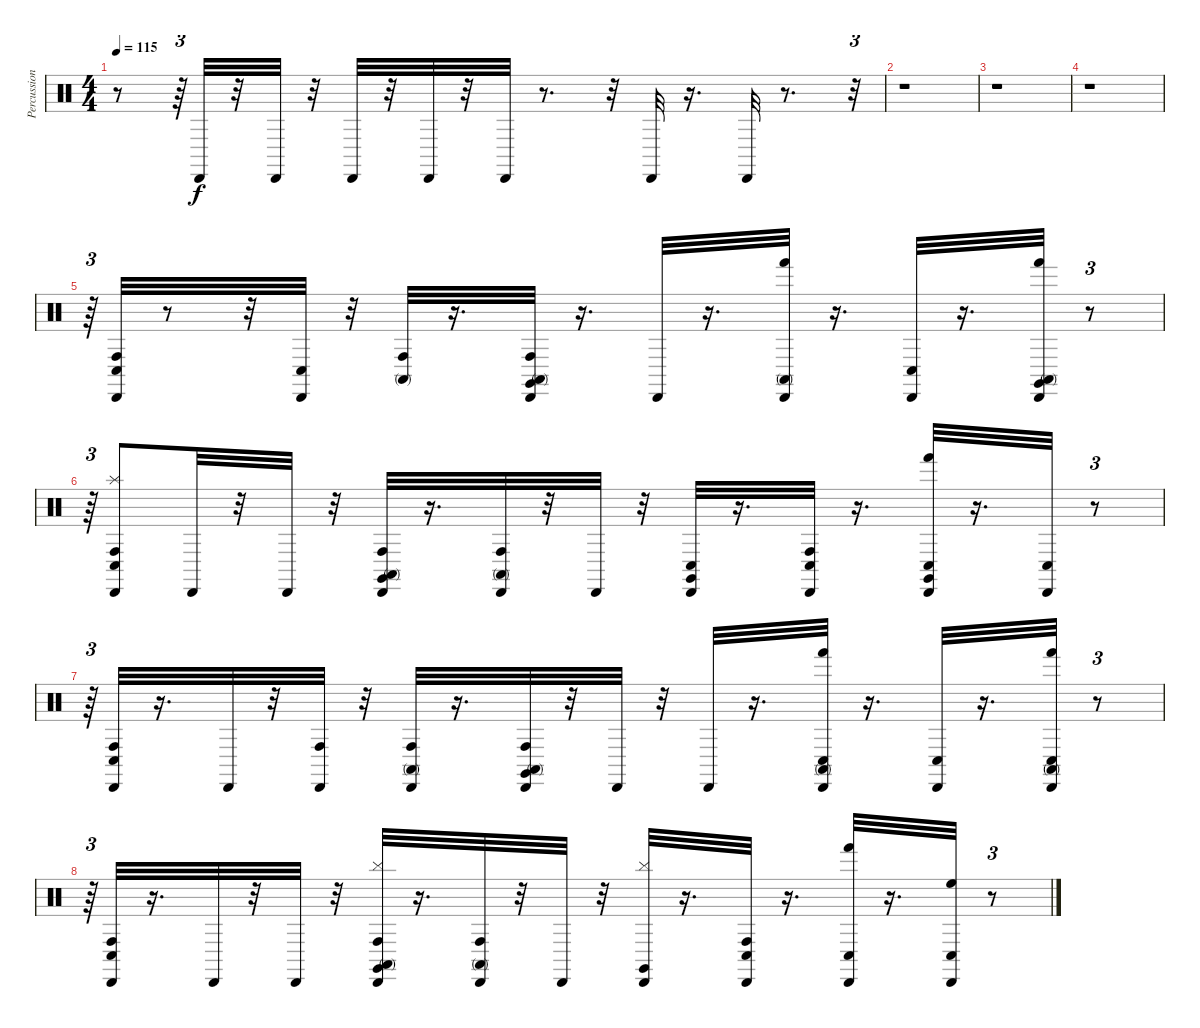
\track ("Percussion" "Percussion") {instrument percussion}
\staff {score}
\articulation defaults
\ts (4 4)
\tempo 115
\clef neutral
\ks c
r.8{dy f} r.64{tu (3 2)} "Cabasa (hit)".32 r.32 "Cabasa (hit)".32 r.32 "Cabasa (hit)".32 r.32 "Cabasa (hit)".32 r.32 "Cabasa (hit)".32 r.8{d} r.32 "Cabasa (hit)".32 r.16{d} "Cabasa (hit)".32 r.8{d} r.32{tu (3 2)} |
r.1 |
r.1 |
r.1 |
r.64{tu (3 2)} ("Conga low (hit)" "Conga high (hit)" "Cabasa (hit)").32 r.8 r.32 ("Cabasa (hit)" "Conga low (hit)").32 r.32 ("Conga high (hit)" "Conga high (mute)").32 r.16{d} ("Conga high (hit)" "Conga high (mute)" "Cabasa (hit)" "Claves (hit)").32 r.16{d} "Cabasa (hit)".32 r.16{d} ("Conga high (mute)" "Cabasa (hit)" "Hand (hit)").32 r.16{d} ("Cabasa (hit)" "Conga low (hit)").32 r.16{d} ("Cabasa (hit)" "Claves (hit)" "Hand (hit)" "Conga high (mute)").32 r.8{tu (3 2)} |
r.64{tu (3 2)} ("Splash (hit)" "Conga low (hit)" "Cabasa (hit)" "Conga high (hit)").8 "Cabasa (hit)".32 r.32 "Cabasa (hit)".32 r.32 ("Conga high (mute)" "Conga high (hit)" "Claves (hit)" "Cabasa (hit)").32 r.16{d} ("Cabasa (hit)" "Conga high (hit)" "Conga high (mute)").32 r.32 "Cabasa (hit)".32 r.32 ("Cabasa (hit)" "Conga low (hit)" "Claves (hit)").32 r.16{d} ("Conga high (hit)" "Conga low (hit)" "Cabasa (hit)").32 r.16{d} ("Claves (hit)" "Conga low (hit)" "Cabasa (hit)" "Hand (hit)").32 r.16{d} ("Conga low (hit)" "Cabasa (hit)").32 r.8{tu (3 2)} |
r.64{tu (3 2)} ("Conga low (hit)" "Conga high (hit)" "Cabasa (hit)").32 r.16{d} "Cabasa (hit)".32 r.32 ("Conga high (hit)" "Cabasa (hit)").32 r.32 ("Conga high (hit)" "Conga high (mute)" "Cabasa (hit)").32 r.16{d} ("Claves (hit)" "Conga high (mute)" "Cabasa (hit)" "Conga high (hit)").32 r.32 "Cabasa (hit)".32 r.32 "Cabasa (hit)".32 r.16{d} ("Hand (hit)" "Conga high (mute)" "Cabasa (hit)" "Conga low (hit)").32 r.16{d} ("Cabasa (hit)" "Conga low (hit)").32 r.16{d} ("Conga high (mute)" "Conga low (hit)" "Cabasa (hit)" "Hand (hit)").32 r.8{tu (3 2)} |
r.64{tu (3 2)} ("Conga high (hit)" "Cabasa (hit)" "Conga low (hit)").32 r.16{d} "Cabasa (hit)".32 r.32 "Cabasa (hit)".32 r.32 ("Conga high (hit)" "Conga high (mute)" "Cabasa (hit)" "Claves (hit)" "Cymbal (hit)").32 r.16{d} ("Conga high (mute)" "Conga high (hit)" "Cabasa (hit)").32 r.32 "Cabasa (hit)".32 r.32 ("Cymbal (hit)" "Claves (hit)" "Cabasa (hit)").32 r.16{d} ("Conga low (hit)" "Conga high (hit)" "Cabasa (hit)").32 r.16{d} ("Cabasa (hit)" "Hand (hit)" "Conga low (hit)").32 r.16{d} ("High Floor Tom (hit)" "Conga low (hit)" "Cabasa (hit)").32 r.8{tu (3 2)}
